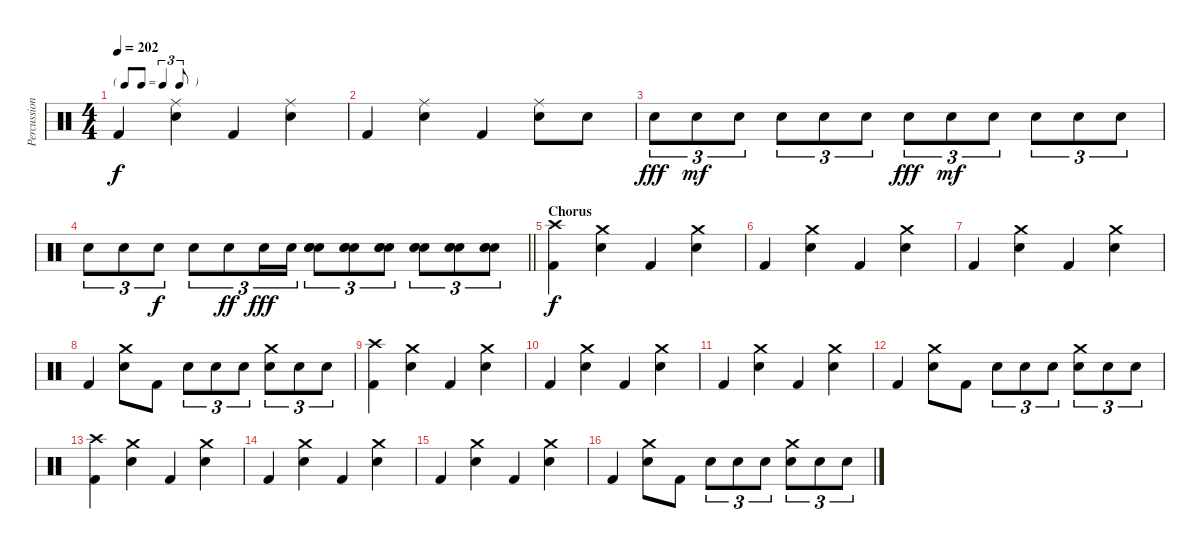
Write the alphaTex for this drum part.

\track ("Percussion" "Percussion") {instrument percussion}
\staff {score}
\articulation defaults
\ts (4 4)
\tf triplet8th
\tempo 202
\clef neutral
\ks c "Kick (hit) 2".4{dy f}
("Ride (middle)" "Electric Snare (hit)").4 "Kick (hit) 2".4 ("Ride (middle)" "Electric Snare (hit)").4 |
"Kick (hit) 2".4 ("Ride (middle)" "Electric Snare (hit)").4 "Kick (hit) 2".4 ("Ride (middle)" "Electric Snare (hit)").8 "Electric Snare (hit)".8 |
"Electric Snare (hit)".8{tu (3 2) dy fff} "Electric Snare (hit)".8{tu (3 2) dy mf} "Electric Snare (hit)".8{tu (3 2)} "Electric Snare (hit)".8{tu (3 2)} "Electric Snare (hit)".8{tu (3 2)} "Electric Snare (hit)".8{tu (3 2)} "Electric Snare (hit)".8{tu (3 2) dy fff} "Electric Snare (hit)".8{tu (3 2) dy mf} "Electric Snare (hit)".8{tu (3 2)} "Electric Snare (hit)".8{tu (3 2)} "Electric Snare (hit)".8{tu (3 2)} "Electric Snare (hit)".8{tu (3 2)} |
\barLineRight lightlight "Electric Snare (hit)".8{tu (3 2)} "Electric Snare (hit)".8{tu (3 2)} "Electric Snare (hit)".8{tu (3 2) dy f} "Electric Snare (hit)".8{tu (3 2)} "Electric Snare (hit)".8{tu (3 2) dy ff} "Electric Snare (hit)".16{tu (3 2) dy fff} "Electric Snare (hit)".16{tu (3 2)}
("Electric Snare (hit)" "Electric Snare (hit)" "Electric Snare (hit)").8{tu (3 2)} ("Electric Snare (hit)" "Electric Snare (hit)" "Electric Snare (hit)").8{tu (3 2)} ("Electric Snare (hit)" "Electric Snare (hit)" "Electric Snare (hit)").8{tu (3 2)} ("Electric Snare (hit)" "Electric Snare (hit)" "Electric Snare (hit)").8{tu (3 2)} ("Electric Snare (hit)" "Electric Snare (hit)" "Electric Snare (hit)").8{tu (3 2)} ("Electric Snare (hit)" "Electric Snare (hit)" "Electric Snare (hit)").8{tu (3 2)} |
\section ("" "Chorus")
("Crash high (hit)" "Kick (hit) 2").4{dy f} ("Crash medium (hit)" "Electric Snare (hit)").4 "Kick (hit) 2".4 ("Crash medium (hit)" "Electric Snare (hit)").4 |
"Kick (hit) 2".4 ("Crash medium (hit)" "Electric Snare (hit)").4 "Kick (hit) 2".4 ("Crash medium (hit)" "Electric Snare (hit)").4 |
"Kick (hit) 2".4 ("Crash medium (hit)" "Electric Snare (hit)").4 "Kick (hit) 2".4 ("Crash medium (hit)" "Electric Snare (hit)").4 |
"Kick (hit) 2".4 ("Crash medium (hit)" "Electric Snare (hit)").8 "Kick (hit) 2".8 "Electric Snare (hit)".8{tu (3 2)} "Electric Snare (hit)".8{tu (3 2)} "Electric Snare (hit)".8{tu (3 2)} ("Crash medium (hit)" "Electric Snare (hit)").8{tu (3 2)} "Electric Snare (hit)".8{tu (3 2)} "Electric Snare (hit)".8{tu (3 2)} |
("Crash high (hit)" "Kick (hit) 2").4 ("Crash medium (hit)" "Electric Snare (hit)").4 "Kick (hit) 2".4 ("Crash medium (hit)" "Electric Snare (hit)").4 |
"Kick (hit) 2".4 ("Crash medium (hit)" "Electric Snare (hit)").4 "Kick (hit) 2".4 ("Crash medium (hit)" "Electric Snare (hit)").4 |
"Kick (hit) 2".4 ("Crash medium (hit)" "Electric Snare (hit)").4 "Kick (hit) 2".4 ("Crash medium (hit)" "Electric Snare (hit)").4 |
"Kick (hit) 2".4 ("Crash medium (hit)" "Electric Snare (hit)").8 "Kick (hit) 2".8 "Electric Snare (hit)".8{tu (3 2)} "Electric Snare (hit)".8{tu (3 2)} "Electric Snare (hit)".8{tu (3 2)} ("Crash medium (hit)" "Electric Snare (hit)").8{tu (3 2)} "Electric Snare (hit)".8{tu (3 2)} "Electric Snare (hit)".8{tu (3 2)} |
("Crash high (hit)" "Kick (hit) 2").4 ("Crash medium (hit)" "Electric Snare (hit)").4 "Kick (hit) 2".4 ("Crash medium (hit)" "Electric Snare (hit)").4 |
"Kick (hit) 2".4 ("Crash medium (hit)" "Electric Snare (hit)").4 "Kick (hit) 2".4 ("Crash medium (hit)" "Electric Snare (hit)").4 |
"Kick (hit) 2".4 ("Crash medium (hit)" "Electric Snare (hit)").4 "Kick (hit) 2".4 ("Crash medium (hit)" "Electric Snare (hit)").4 |
"Kick (hit) 2".4 ("Crash medium (hit)" "Electric Snare (hit)").8 "Kick (hit) 2".8 "Electric Snare (hit)".8{tu (3 2)} "Electric Snare (hit)".8{tu (3 2)} "Electric Snare (hit)".8{tu (3 2)} ("Crash medium (hit)" "Electric Snare (hit)").8{tu (3 2)} "Electric Snare (hit)".8{tu (3 2)} "Electric Snare (hit)".8{tu (3 2)}
